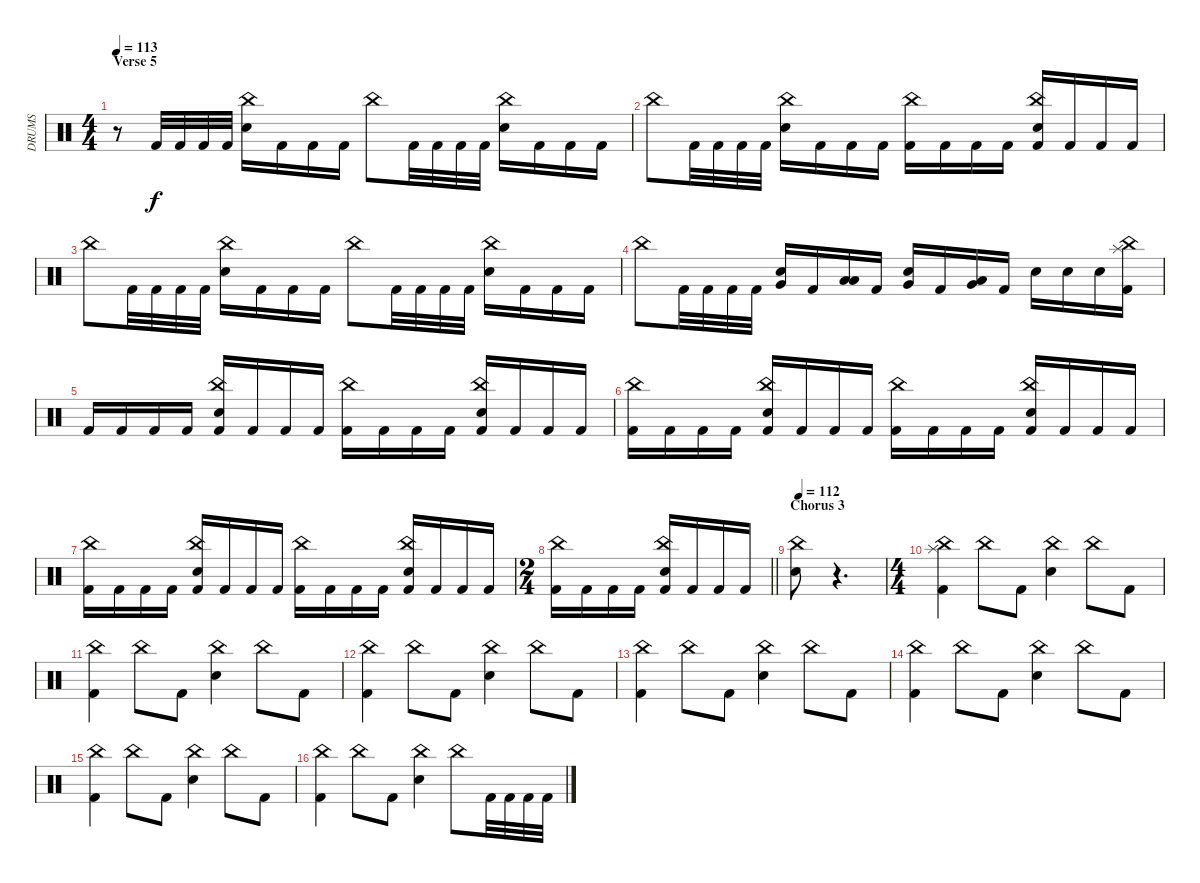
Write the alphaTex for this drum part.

\track ("DRUMS" "DRUMS") {instrument percussion}
\staff {score}
\articulation defaults
\ts (4 4)
\section ("" "Verse 5")
\tempo 113
\clef neutral
\ks c
r.8{dy f} "Kick (hit) 2".32 "Kick (hit) 2".32 "Kick (hit) 2".32 "Kick (hit) 2".32 ("China (hit)" "Electric Snare (hit)").16 "Kick (hit) 2".16 "Kick (hit) 2".16 "Kick (hit) 2".16 "China (hit)".8 "Kick (hit) 2".32 "Kick (hit) 2".32 "Kick (hit) 2".32 "Kick (hit) 2".32 ("China (hit)" "Electric Snare (hit)").16 "Kick (hit) 2".16 "Kick (hit) 2".16 "Kick (hit) 2".16 |
"China (hit)".8 "Kick (hit) 2".32 "Kick (hit) 2".32 "Kick (hit) 2".32 "Kick (hit) 2".32 ("China (hit)" "Electric Snare (hit)").16 "Kick (hit) 2".16 "Kick (hit) 2".16 "Kick (hit) 2".16 ("China (hit)" "Kick (hit) 2").16 "Kick (hit) 2".16 "Kick (hit) 2".16 "Kick (hit) 2".16 ("China (hit)" "Electric Snare (hit)" "Kick (hit) 2").16 "Kick (hit) 2".16 "Kick (hit) 2".16 "Kick (hit) 2".16 |
"China (hit)".8 "Kick (hit) 2".32 "Kick (hit) 2".32 "Kick (hit) 2".32 "Kick (hit) 2".32 ("China (hit)" "Electric Snare (hit)").16 "Kick (hit) 2".16 "Kick (hit) 2".16 "Kick (hit) 2".16 "China (hit)".8 "Kick (hit) 2".32 "Kick (hit) 2".32 "Kick (hit) 2".32 "Kick (hit) 2".32 ("China (hit)" "Electric Snare (hit)").16 "Kick (hit) 2".16 "Kick (hit) 2".16 "Kick (hit) 2".16 |
"China (hit)".8 "Kick (hit) 2".32 "Kick (hit) 2".32 "Kick (hit) 2".32 "Kick (hit) 2".32 ("Electric Snare (hit)" "Very Low Tom (hit)").16 "Kick (hit) 2".16 ("Low Tom (hit)" "Low Floor Tom (hit)").16 "Kick (hit) 2".16 ("Electric Snare (hit)" "Very Low Tom (hit)").16 "Kick (hit) 2".16 ("Low Tom (hit)" "Very Low Tom (hit)").16 "Kick (hit) 2".16 "Electric Snare (hit)".16 "Electric Snare (hit)".16 "Electric Snare (hit)".16 ("China (hit)" "Splash (hit)" "Kick (hit) 2").16 |
"Kick (hit) 2".16 "Kick (hit) 2".16 "Kick (hit) 2".16 "Kick (hit) 2".16 ("China (hit)" "Electric Snare (hit)" "Kick (hit) 2").16 "Kick (hit) 2".16 "Kick (hit) 2".16 "Kick (hit) 2".16 ("China (hit)" "Kick (hit) 2").16 "Kick (hit) 2".16 "Kick (hit) 2".16 "Kick (hit) 2".16 ("China (hit)" "Electric Snare (hit)" "Kick (hit) 2").16 "Kick (hit) 2".16 "Kick (hit) 2".16 "Kick (hit) 2".16 |
("China (hit)" "Kick (hit) 2").16 "Kick (hit) 2".16 "Kick (hit) 2".16 "Kick (hit) 2".16 ("China (hit)" "Electric Snare (hit)" "Kick (hit) 2").16 "Kick (hit) 2".16 "Kick (hit) 2".16 "Kick (hit) 2".16 ("China (hit)" "Kick (hit) 2").16 "Kick (hit) 2".16 "Kick (hit) 2".16 "Kick (hit) 2".16 ("China (hit)" "Electric Snare (hit)" "Kick (hit) 2").16 "Kick (hit) 2".16 "Kick (hit) 2".16 "Kick (hit) 2".16 |
("China (hit)" "Kick (hit) 2").16 "Kick (hit) 2".16 "Kick (hit) 2".16 "Kick (hit) 2".16 ("China (hit)" "Electric Snare (hit)" "Kick (hit) 2").16 "Kick (hit) 2".16 "Kick (hit) 2".16 "Kick (hit) 2".16 ("China (hit)" "Kick (hit) 2").16 "Kick (hit) 2".16 "Kick (hit) 2".16 "Kick (hit) 2".16 ("China (hit)" "Electric Snare (hit)" "Kick (hit) 2").16 "Kick (hit) 2".16 "Kick (hit) 2".16 "Kick (hit) 2".16 |
\ts (2 4)
\barLineRight lightlight
("China (hit)" "Kick (hit) 2").16 "Kick (hit) 2".16 "Kick (hit) 2".16 "Kick (hit) 2".16 ("China (hit)" "Electric Snare (hit)" "Kick (hit) 2").16 "Kick (hit) 2".16 "Kick (hit) 2".16 "Kick (hit) 2".16 |
\section ("" "Chorus 3")
\tempo 112
("China (hit)" "Electric Snare (hit)").8 r.4{d} |
\ts (4 4)
("China (hit)" "Splash (hit)" "Kick (hit) 2").4 "China (hit)".8 "Kick (hit) 2".8 ("China (hit)" "Electric Snare (hit)").4 "China (hit)".8 "Kick (hit) 2".8 |
("China (hit)" "Kick (hit) 2").4 "China (hit)".8 "Kick (hit) 2".8 ("China (hit)" "Electric Snare (hit)").4 "China (hit)".8 "Kick (hit) 2".8 |
("China (hit)" "Kick (hit) 2").4 "China (hit)".8 "Kick (hit) 2".8 ("China (hit)" "Electric Snare (hit)").4 "China (hit)".8 "Kick (hit) 2".8 |
("China (hit)" "Kick (hit) 2").4 "China (hit)".8 "Kick (hit) 2".8 ("China (hit)" "Electric Snare (hit)").4 "China (hit)".8 "Kick (hit) 2".8 |
("China (hit)" "Kick (hit) 2").4 "China (hit)".8 "Kick (hit) 2".8 ("China (hit)" "Electric Snare (hit)").4 "China (hit)".8 "Kick (hit) 2".8 |
("China (hit)" "Kick (hit) 2").4 "China (hit)".8 "Kick (hit) 2".8 ("China (hit)" "Electric Snare (hit)").4 "China (hit)".8 "Kick (hit) 2".8 |
("China (hit)" "Kick (hit) 2").4 "China (hit)".8 "Kick (hit) 2".8 ("China (hit)" "Electric Snare (hit)").4 "China (hit)".8 "Kick (hit) 2".32 "Kick (hit) 2".32 "Kick (hit) 2".32 "Kick (hit) 2".32
